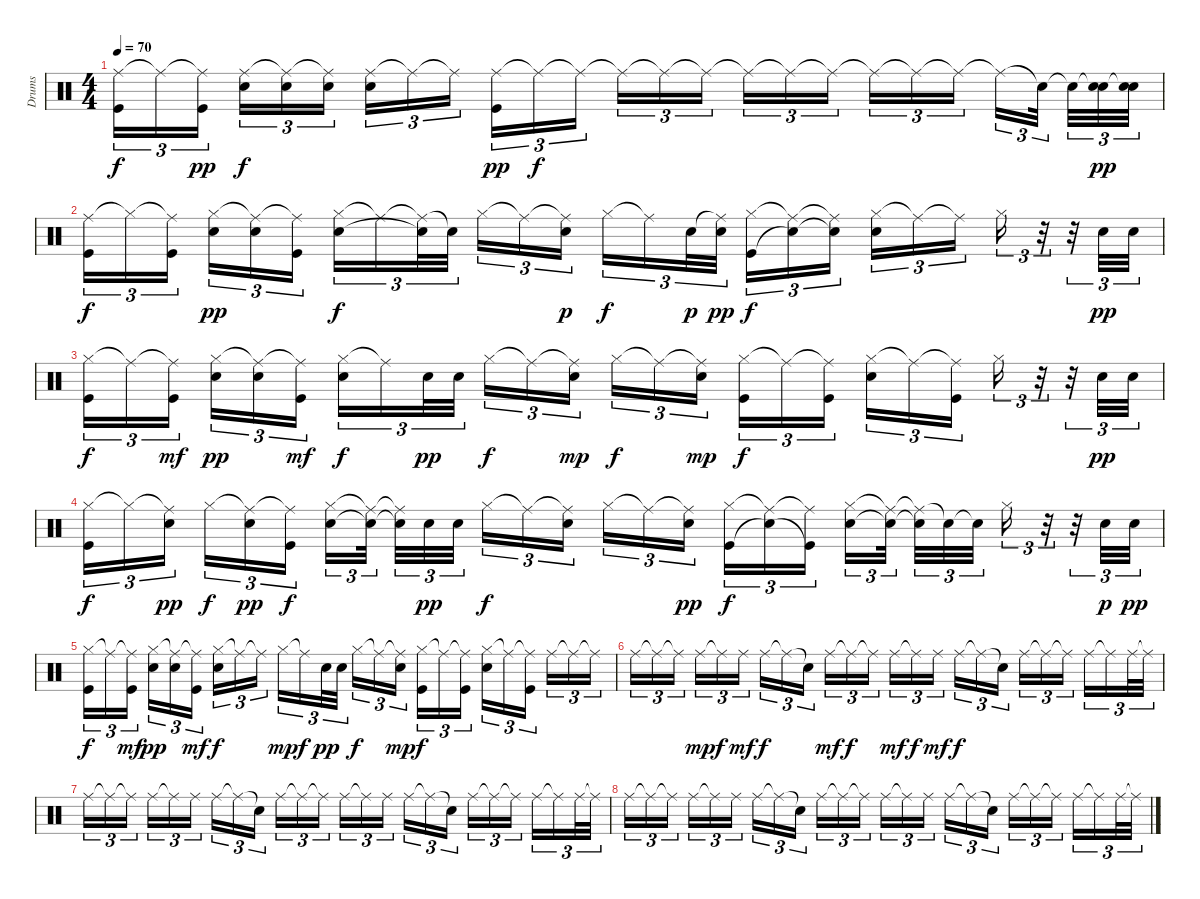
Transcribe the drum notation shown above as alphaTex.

\track ("Drums" "Drums") {instrument percussion}
\staff {score}
\articulation defaults
\ts (4 4)
\tempo 70
\clef neutral
\ks c
("Ride (middle)" "Kick (hit)").16{tu (3 2) dy f} "Ride (middle)"{t}.16{tu (3 2)} ("Ride (middle)"{t} "Kick (hit)").16{tu (3 2) dy pp} ("Ride (middle)" "Electric Snare (hit)").16{tu (3 2) dy f} ("Ride (middle)"{t} "Electric Snare (hit)").16{tu (3 2)} ("Ride (middle)"{t} "Electric Snare (hit)").16{tu (3 2)} ("Ride (middle)" "Electric Snare (hit)").16{tu (3 2)} "Ride (middle)"{t}.16{tu (3 2)} "Ride (middle)"{t}.16{tu (3 2)} ("Ride (middle)" "Kick (hit)").16{tu (3 2) dy pp} "Ride (middle)"{t}.16{tu (3 2) dy f} "Ride (middle)"{t}.16{tu (3 2)} "Ride (middle)"{t}.16{tu (3 2)} "Ride (middle)"{t}.16{tu (3 2)} "Ride (middle)"{t}.16{tu (3 2)} "Ride (middle)"{t}.16{tu (3 2)} "Ride (middle)"{t}.16{tu (3 2)} "Ride (middle)"{t}.16{tu (3 2)} "Ride (middle)"{t}.16{tu (3 2)} "Ride (middle)"{t}.16{tu (3 2)} "Ride (middle)"{t}.16{tu (3 2)} "Ride (middle)"{t}.16{tu (3 2)} "Snare (hit)"{t}.32{tu (3 2)} "Snare (hit)"{t}.32{tu (3 2)} ("Snare (hit)"{t} "Electric Snare (hit)").32{tu (3 2) dy pp} ("Snare (hit)"{t} "Electric Snare (hit)").32{tu (3 2)} |
("Ride (middle)" "Kick (hit)").16{tu (3 2) dy f} "Hi-Hat (closed)"{t}.16{tu (3 2)} ("Ride (middle)"{t} "Kick (hit)").16{tu (3 2)} ("Hi-Hat (closed)" "Electric Snare (hit)").16{tu (3 2) dy pp} ("Ride (middle)"{t} "Electric Snare (hit)").16{tu (3 2)} ("Ride (middle)"{t} "Kick (hit)").16{tu (3 2)} ("Hi-Hat (closed)" "Electric Snare (hit)").16{tu (3 2) dy f} "Ride (middle)"{t}.16{tu (3 2)} ("Ride (middle)"{t} "Electric Snare (hit)"{t}).32{tu (3 2)} "Electric Snare (hit)"{t}.32{tu (3 2)} "Hi-Hat (closed)".16{tu (3 2)} "Ride (middle)"{t}.16{tu (3 2)} ("Ride (middle)"{t} "Electric Snare (hit)").16{tu (3 2) dy p} "Hi-Hat (closed)".16{tu (3 2) dy f} "Ride (middle)"{t}.16{tu (3 2)} "Electric Snare (hit)".32{tu (3 2) dy p} ("Ride (middle)"{t} "Electric Snare (hit)").32{tu (3 2) dy pp} ("Hi-Hat (closed)" "Kick (hit)").16{tu (3 2) dy f} ("Ride (middle)"{t} "Electric Snare (hit)"{t}).16{tu (3 2)} ("Ride (middle)"{t} "Electric Snare (hit)"{t}).16{tu (3 2)} ("Hi-Hat (closed)" "Electric Snare (hit)").16{tu (3 2)} "Ride (middle)"{t}.16{tu (3 2)} "Ride (middle)"{t}.16{tu (3 2)} "Hi-Hat (closed)".16{tu (3 2)} r.32{tu (3 2)} r.32{tu (3 2)} "Electric Snare (hit)".32{tu (3 2) dy pp} "Electric Snare (hit)".32{tu (3 2)} |
("Hi-Hat (closed)" "Kick (hit)").16{tu (3 2) dy f} "Ride (middle)"{t}.16{tu (3 2)} ("Ride (middle)"{t} "Kick (hit)").16{tu (3 2) dy mf} ("Hi-Hat (closed)" "Electric Snare (hit)").16{tu (3 2) dy pp} ("Ride (middle)"{t} "Electric Snare (hit)").16{tu (3 2)} ("Ride (middle)"{t} "Kick (hit)").16{tu (3 2) dy mf} ("Hi-Hat (closed)" "Electric Snare (hit)").16{tu (3 2) dy f} "Ride (middle)"{t}.16{tu (3 2)} "Electric Snare (hit)".32{tu (3 2) dy pp} "Electric Snare (hit)".32{tu (3 2)} "Hi-Hat (closed)".16{tu (3 2) dy f} "Ride (middle)"{t}.16{tu (3 2)} ("Ride (middle)"{t} "Electric Snare (hit)").16{tu (3 2) dy mp} "Hi-Hat (closed)".16{tu (3 2) dy f} "Ride (middle)"{t}.16{tu (3 2)} ("Ride (middle)"{t} "Electric Snare (hit)").16{tu (3 2) dy mp} ("Hi-Hat (closed)" "Kick (hit)").16{tu (3 2) dy f} "Ride (middle)"{t}.16{tu (3 2)} ("Ride (middle)"{t} "Kick (hit)").16{tu (3 2)} ("Hi-Hat (closed)" "Electric Snare (hit)").16{tu (3 2)} "Ride (middle)"{t}.16{tu (3 2)} ("Ride (middle)"{t} "Kick (hit)").16{tu (3 2)} "Hi-Hat (closed)".16{tu (3 2)} r.32{tu (3 2)} r.32{tu (3 2)} "Electric Snare (hit)".32{tu (3 2) dy pp} "Electric Snare (hit)".32{tu (3 2)} |
("Hi-Hat (closed)" "Kick (hit)").16{tu (3 2) dy f} "Hi-Hat (closed)"{t}.16{tu (3 2)} ("Ride (middle)"{t} "Electric Snare (hit)").16{tu (3 2) dy pp} "Hi-Hat (closed)".16{tu (3 2) dy f} ("Ride (middle)"{t} "Electric Snare (hit)").16{tu (3 2) dy pp} ("Ride (middle)"{t} "Kick (hit)").16{tu (3 2) dy f} ("Hi-Hat (closed)" "Electric Snare (hit)").16{tu (3 2)} ("Ride (middle)"{t} "Electric Snare (hit)"{t}).32{tu (3 2)} ("Ride (middle)"{t} "Electric Snare (hit)"{t}).32{tu (3 2)} "Electric Snare (hit)".32{tu (3 2) dy pp} "Electric Snare (hit)".32{tu (3 2)} "Hi-Hat (closed)".16{tu (3 2) dy f} "Ride (middle)"{t}.16{tu (3 2)} ("Ride (middle)"{t} "Electric Snare (hit)").16{tu (3 2)} "Hi-Hat (closed)".16{tu (3 2)} "Ride (middle)"{t}.16{tu (3 2)} ("Ride (middle)"{t} "Electric Snare (hit)").16{tu (3 2) dy pp} ("Hi-Hat (closed)" "Kick (hit)").16{tu (3 2) dy f} ("Ride (middle)"{t} "Electric Snare (hit)"{t}).16{tu (3 2)} ("Ride (middle)"{t} "Kick (hit)"{t}).16{tu (3 2)} ("Hi-Hat (closed)" "Electric Snare (hit)").16{tu (3 2)} ("Ride (middle)"{t} "Electric Snare (hit)"{t}).32{tu (3 2)} ("Ride (middle)"{t} "Electric Snare (hit)"{t}).32{tu (3 2)} "Electric Snare (hit)"{t}.32{tu (3 2)} "Electric Snare (hit)"{t}.32{tu (3 2)} "Hi-Hat (closed)".16{tu (3 2)} r.32{tu (3 2)} r.32{tu (3 2)} "Electric Snare (hit)".32{tu (3 2) dy p} "Electric Snare (hit)".32{tu (3 2) dy pp} |
("Hi-Hat (closed)" "Kick (hit)").16{tu (3 2) dy f} "Ride (middle)"{t}.16{tu (3 2)} ("Ride (middle)"{t} "Kick (hit)").16{tu (3 2) dy mf} ("Hi-Hat (closed)" "Electric Snare (hit)").16{tu (3 2) dy pp} ("Ride (middle)"{t} "Electric Snare (hit)").16{tu (3 2)} ("Ride (middle)"{t} "Kick (hit)").16{tu (3 2) dy mf} ("Hi-Hat (closed)" "Electric Snare (hit)").16{tu (3 2) dy f} "Ride (middle)"{t}.16{tu (3 2)} "Ride (middle)"{t}.16{tu (3 2)} "Hi-Hat (closed)".16{tu (3 2) dy mp} "Ride (middle)"{t}.16{tu (3 2) dy f} "Electric Snare (hit)".32{tu (3 2) dy pp} "Electric Snare (hit)".32{tu (3 2)} "Hi-Hat (closed)".16{tu (3 2) dy f} "Ride (middle)"{t}.16{tu (3 2)} ("Ride (middle)"{t} "Electric Snare (hit)").16{tu (3 2) dy mp} ("Hi-Hat (closed)" "Kick (hit)").16{tu (3 2) dy f} "Ride (middle)"{t}.16{tu (3 2)} ("Ride (middle)"{t} "Kick (hit)").16{tu (3 2)} ("Hi-Hat (closed)" "Electric Snare (hit)").16{tu (3 2)} "Ride (middle)"{t}.16{tu (3 2)} ("Ride (middle)"{t} "Kick (hit)").16{tu (3 2)} "Ride (middle)".16{tu (3 2)} "Ride (middle)"{t}.16{tu (3 2)} "Ride (middle)"{t}.16{tu (3 2)} |
"Ride (middle)".16{tu (3 2)} "Ride (middle)"{t}.16{tu (3 2)} "Ride (middle)"{t}.16{tu (3 2)} "Ride (middle)".16{tu (3 2) dy mp} "Ride (middle)"{t}.16{tu (3 2) dy f} "Ride (middle)".16{tu (3 2) dy mf} "Ride (middle)".16{tu (3 2) dy f} "Ride (middle)"{t}.16{tu (3 2)} "Snare (hit)"{t}.16{tu (3 2)} "Ride (middle)".16{tu (3 2) dy mf} "Ride (middle)"{t}.16{tu (3 2) dy f} "Ride (middle)"{t}.16{tu (3 2)} "Ride (middle)".16{tu (3 2) dy mf} "Ride (middle)"{t}.16{tu (3 2) dy f} "Ride (middle)".16{tu (3 2) dy mf} "Ride (middle)".16{tu (3 2) dy f} "Ride (middle)"{t}.16{tu (3 2)} "Snare (hit)"{t}.16{tu (3 2)} "Ride (middle)".16{tu (3 2)} "Ride (middle)"{t}.16{tu (3 2)} "Ride (middle)"{t}.16{tu (3 2)} "Ride (middle)".16{tu (3 2)} "Ride (middle)"{t}.16{tu (3 2)} "Ride (middle)".32{tu (3 2)} "Ride (middle)"{t}.32{tu (3 2)} |
"Ride (middle)".16{tu (3 2)} "Ride (middle)"{t}.16{tu (3 2)} "Ride (middle)"{t}.16{tu (3 2)} "Ride (middle)".16{tu (3 2)} "Ride (middle)"{t}.16{tu (3 2)} "Ride (middle)".16{tu (3 2)} "Ride (middle)".16{tu (3 2)} "Ride (middle)"{t}.16{tu (3 2)} "Snare (hit)"{t}.16{tu (3 2)} "Ride (middle)".16{tu (3 2)} "Ride (middle)"{t}.16{tu (3 2)} "Ride (middle)"{t}.16{tu (3 2)} "Ride (middle)".16{tu (3 2)} "Ride (middle)"{t}.16{tu (3 2)} "Ride (middle)".16{tu (3 2)} "Ride (middle)".16{tu (3 2)} "Ride (middle)"{t}.16{tu (3 2)} "Snare (hit)"{t}.16{tu (3 2)} "Ride (middle)".16{tu (3 2)} "Ride (middle)"{t}.16{tu (3 2)} "Ride (middle)"{t}.16{tu (3 2)} "Ride (middle)".16{tu (3 2)} "Ride (middle)"{t}.16{tu (3 2)} "Ride (middle)".32{tu (3 2)} "Ride (middle)"{t}.32{tu (3 2)} |
"Ride (middle)".16{tu (3 2)} "Ride (middle)"{t}.16{tu (3 2)} "Ride (middle)"{t}.16{tu (3 2)} "Ride (middle)".16{tu (3 2)} "Ride (middle)"{t}.16{tu (3 2)} "Ride (middle)".16{tu (3 2)} "Ride (middle)".16{tu (3 2)} "Ride (middle)"{t}.16{tu (3 2)} "Snare (hit)"{t}.16{tu (3 2)} "Ride (middle)".16{tu (3 2)} "Ride (middle)"{t}.16{tu (3 2)} "Ride (middle)"{t}.16{tu (3 2)} "Ride (middle)".16{tu (3 2)} "Ride (middle)"{t}.16{tu (3 2)} "Ride (middle)".16{tu (3 2)} "Ride (middle)".16{tu (3 2)} "Ride (middle)"{t}.16{tu (3 2)} "Snare (hit)"{t}.16{tu (3 2)} "Ride (middle)".16{tu (3 2)} "Ride (middle)"{t}.16{tu (3 2)} "Ride (middle)"{t}.16{tu (3 2)} "Ride (middle)".16{tu (3 2)} "Ride (middle)"{t}.16{tu (3 2)} "Ride (middle)".32{tu (3 2)} "Ride (middle)"{t}.32{tu (3 2)}
